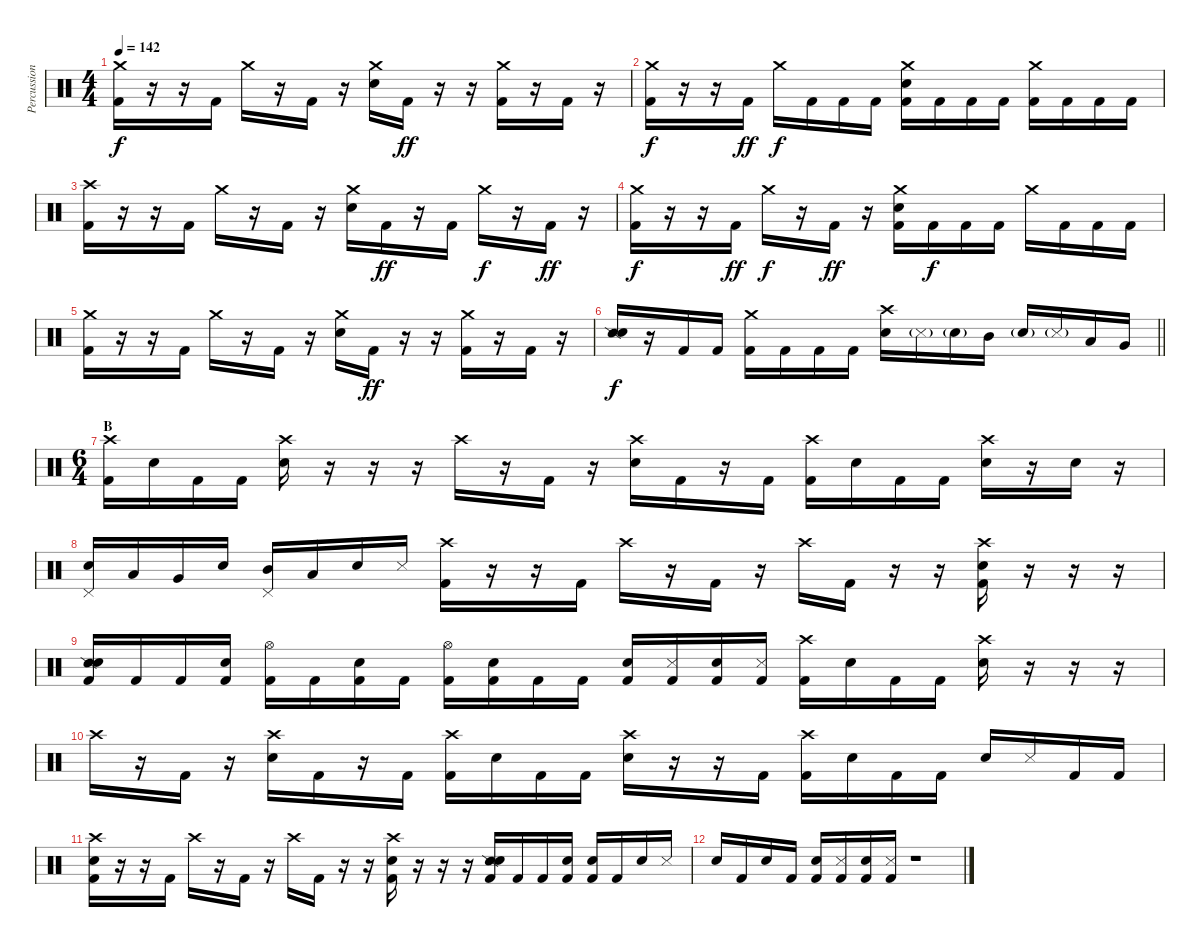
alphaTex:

\track ("Percussion" "Percussion") {instrument percussion}
\staff {score}
\articulation defaults
\ts (4 4)
\tempo 142
\clef neutral
\ks c
("Crash medium (hit)" "Kick (hit) 2").16{dy f} r.16 r.16 "Kick (hit) 2".16 "Crash medium (hit)".16 r.16 "Kick (hit) 2".16 r.16 ("Crash medium (hit)" "Snare (hit) 2").16 "Kick (hit) 2".16{dy ff} r.16 r.16 ("Crash medium (hit)" "Kick (hit) 2").16 r.16 "Kick (hit) 2".16 r.16 |
("Crash medium (hit)" "Kick (hit) 2").16{dy f} r.16 r.16 "Kick (hit) 2".16{dy ff} "Crash medium (hit)".16{dy f} "Kick (hit) 2".16 "Kick (hit) 2".16 "Kick (hit) 2".16 ("Crash medium (hit)" "Snare (hit) 2" "Kick (hit) 2").16 "Kick (hit) 2".16 "Kick (hit) 2".16 "Kick (hit) 2".16 ("Crash medium (hit)" "Kick (hit) 2").16 "Kick (hit) 2".16 "Kick (hit) 2".16 "Kick (hit) 2".16 |
("Crash high (hit)" "Kick (hit) 2").16 r.16 r.16 "Kick (hit) 2".16 "Crash medium (hit)".16 r.16 "Kick (hit) 2".16 r.16 ("Crash medium (hit)" "Snare (hit) 2").16 "Kick (hit) 2".16{dy ff} r.16 "Kick (hit) 2".16 "Crash medium (hit)".16{dy f} r.16 "Kick (hit) 2".16{dy ff} r.16 |
("Crash medium (hit)" "Kick (hit) 2").16{dy f} r.16 r.16 "Kick (hit) 2".16{dy ff} "Crash medium (hit)".16{dy f} r.16 "Kick (hit) 2".16{dy ff} r.16 ("Crash medium (hit)" "Snare (hit) 2" "Kick (hit) 2").16 "Kick (hit) 2".16{dy f} "Kick (hit) 2".16 "Kick (hit) 2".16 "Crash medium (hit)".16 "Kick (hit) 2".16 "Kick (hit) 2".16 "Kick (hit) 2".16 |
("Crash medium (hit)" "Kick (hit) 2").16 r.16 r.16 "Kick (hit) 2".16 "Crash medium (hit)".16 r.16 "Kick (hit) 2".16 r.16 ("Crash medium (hit)" "Snare (hit) 2").16 "Kick (hit) 2".16{dy ff} r.16 r.16 ("Crash medium (hit)" "Kick (hit) 2").16 r.16 "Kick (hit) 2".16 r.16 |
\barLineRight lightlight
("Snare (side stick) 2" "Snare (hit) 2").16{dy f} r.16 "Kick (hit) 2".16 "Kick (hit) 2".16 ("Crash medium (hit)" "Kick (hit) 2").16 "Kick (hit) 2".16 "Kick (hit) 2".16 "Kick (hit) 2".16 ("Crash high (hit)" "Snare (hit) 2").16 "Metronome (hit)"{g}.16 "Snare (hit) 2"{g}.16 "Mid Tom (hit)".16 "Snare (hit) 2"{g}.16 "Metronome (hit)"{g}.16 "Low Tom (hit)".16 "Very Low Tom (hit)".16 |
\ts (6 4)
\section ("" "B")
("Crash high (hit)" "Kick (hit) 2").16 "Snare (hit) 2".16 "Kick (hit) 2".16 "Kick (hit) 2".16 ("Crash high (hit)" "Snare (hit) 2").16 r.16 r.16 r.16 "Crash high (hit)".16 r.16 "Kick (hit) 2".16 r.16 ("Crash high (hit)" "Snare (hit) 2").16 "Kick (hit) 2".16 r.16 "Kick (hit) 2".16 ("Crash high (hit)" "Kick (hit) 2").16 "Snare (hit) 2".16 "Kick (hit) 2".16 "Kick (hit) 2".16 ("Crash high (hit)" "Snare (hit) 2").16 r.16 "Snare (hit)".16 r.16 |
("Pedal Hi-Hat (hit)" "Snare (hit) 2").16 "Low Tom (hit)".16 "Very Low Tom (hit)".16 "Snare (hit) 2".16 ("Pedal Hi-Hat (hit)" "Mid Tom (hit)").16 "Low Tom (hit)".16 "Snare (hit) 2".16 "Metronome (hit)".16 ("Crash high (hit)" "Kick (hit) 2").16 r.16 r.16 "Kick (hit) 2".16 "Crash high (hit)".16 r.16 "Kick (hit) 2".16 r.16 "Crash high (hit)".16 "Kick (hit) 2".16 r.16 r.16 ("Crash high (hit)" "Snare (hit) 2" "Kick (hit) 2").16 r.16 r.16 r.16 |
("Snare (side stick) 2" "Snare (hit) 2" "Kick (hit) 2").16 "Kick (hit) 2".16 "Kick (hit) 2".16 ("Snare (hit) 2" "Kick (hit) 2").16 ("Hi-Hat (open)" "Kick (hit) 2").16 "Kick (hit) 2".16 ("Snare (hit) 2" "Kick (hit) 2").16 "Kick (hit) 2".16 ("Hi-Hat (open)" "Kick (hit) 2").16 ("Snare (hit) 2" "Kick (hit) 2").16 "Kick (hit) 2".16 "Kick (hit) 2".16 ("Snare (hit) 2" "Kick (hit) 2").16 ("Metronome (hit)" "Kick (hit) 2").16 ("Snare (hit) 2" "Kick (hit) 2").16 ("Metronome (hit)" "Kick (hit) 2").16 ("Crash high (hit)" "Kick (hit) 2").16 "Snare (hit) 2".16 "Kick (hit) 2".16 "Kick (hit) 2".16 ("Crash high (hit)" "Snare (hit) 2").16 r.16 r.16 r.16 |
"Crash high (hit)".16 r.16 "Kick (hit) 2".16 r.16 ("Crash high (hit)" "Snare (hit) 2").16 "Kick (hit) 2".16 r.16 "Kick (hit) 2".16 ("Crash high (hit)" "Kick (hit) 2").16 "Snare (hit) 2".16 "Kick (hit) 2".16 "Kick (hit) 2".16 ("Crash high (hit)" "Snare (hit) 2").16 r.16 r.16 "Kick (hit) 2".16 ("Crash high (hit)" "Kick (hit) 2").16 "Snare (hit) 2".16 "Kick (hit) 2".16 "Kick (hit) 2".16 "Snare (hit) 2".16 "Metronome (hit)".16 "Kick (hit) 2".16 "Kick (hit) 2".16 |
("Crash high (hit)" "Snare (hit) 2" "Kick (hit) 2").16 r.16 r.16 "Kick (hit) 2".16 "Crash high (hit)".16 r.16 "Kick (hit) 2".16 r.16 "Crash high (hit)".16 "Kick (hit) 2".16 r.16 r.16 ("Crash high (hit)" "Snare (hit) 2" "Kick (hit) 2").16 r.16 r.16 r.16 ("Snare (side stick) 2" "Snare (hit) 2" "Kick (hit) 2").16 "Kick (hit) 2".16 "Kick (hit) 2".16 ("Snare (hit) 2" "Kick (hit) 2").16 ("Snare (hit)" "Kick (hit) 2").16 "Kick (hit) 2".16 "Snare (hit) 2".16 "Metronome (hit)".16 |
"Snare (hit) 2".16 "Kick (hit) 2".16 "Snare (hit) 2".16 "Kick (hit) 2".16 ("Snare (hit) 2" "Kick (hit) 2").16 ("Metronome (hit)" "Kick (hit) 2").16 ("Snare (hit) 2" "Kick (hit) 2").16 ("Metronome (hit)" "Kick (hit) 2").16 r.1
